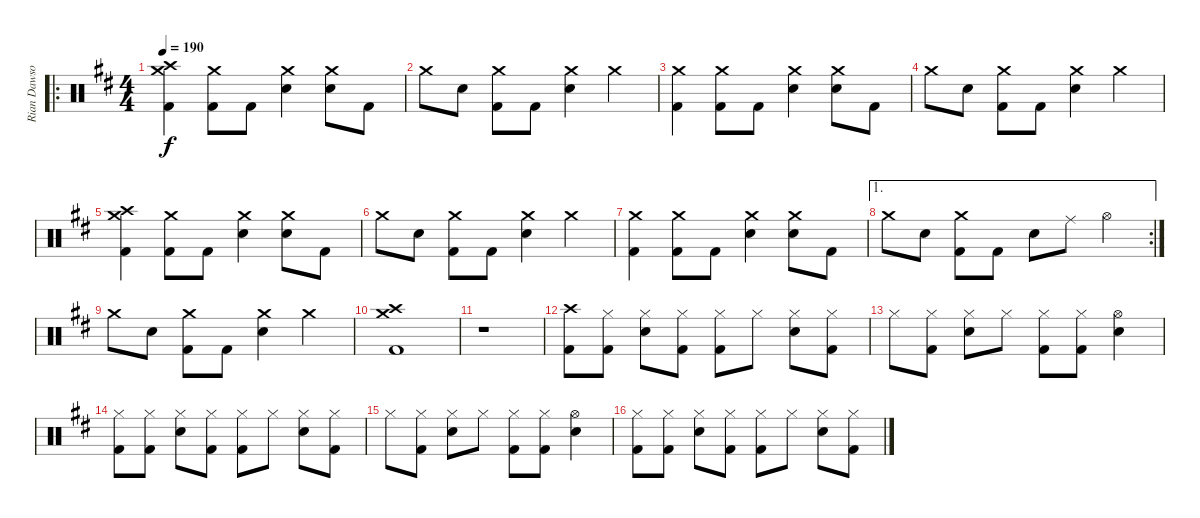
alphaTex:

\track ("Rian Dawson" "Rian Dawso") {instrument percussion}
\staff {score}
\articulation defaults
\ro
\ts (4 4)
\tempo 190
\clef neutral
\ks d
("Crash high (hit)" "Crash medium (hit)" "Kick (hit) 2").4{dy f} ("Crash medium (hit)" "Kick (hit) 2").8 "Kick (hit) 2".8 ("Crash medium (hit)" "Electric Snare (hit)").4 ("Crash medium (hit)" "Electric Snare (hit)").8 "Kick (hit) 2".8 |
"Crash medium (hit)".8 "Electric Snare (hit)".8 ("Crash medium (hit)" "Kick (hit) 2").8 "Kick (hit) 2".8 ("Crash medium (hit)" "Electric Snare (hit)").4 "Crash medium (hit)".4 |
("Crash medium (hit)" "Kick (hit) 2").4 ("Crash medium (hit)" "Kick (hit) 2").8 "Kick (hit) 2".8 ("Crash medium (hit)" "Electric Snare (hit)").4 ("Crash medium (hit)" "Electric Snare (hit)").8 "Kick (hit) 2".8 |
"Crash medium (hit)".8 "Electric Snare (hit)".8 ("Crash medium (hit)" "Kick (hit) 2").8 "Kick (hit) 2".8 ("Crash medium (hit)" "Electric Snare (hit)").4 "Crash medium (hit)".4 |
("Crash high (hit)" "Crash medium (hit)" "Kick (hit) 2").4 ("Crash medium (hit)" "Kick (hit) 2").8 "Kick (hit) 2".8 ("Crash medium (hit)" "Electric Snare (hit)").4 ("Crash medium (hit)" "Electric Snare (hit)").8 "Kick (hit) 2".8 |
"Crash medium (hit)".8 "Electric Snare (hit)".8 ("Crash medium (hit)" "Kick (hit) 2").8 "Kick (hit) 2".8 ("Crash medium (hit)" "Electric Snare (hit)").4 "Crash medium (hit)".4 |
("Crash medium (hit)" "Kick (hit) 2").4 ("Crash medium (hit)" "Kick (hit) 2").8 "Kick (hit) 2".8 ("Crash medium (hit)" "Electric Snare (hit)").4 ("Crash medium (hit)" "Electric Snare (hit)").8 "Kick (hit) 2".8 |
\ae 1
\rc 2 "Crash medium (hit)".8 "Electric Snare (hit)".8
("Crash medium (hit)" "Kick (hit) 2").8 "Kick (hit) 2".8 "Electric Snare (hit)".8 "Ride (middle)".8 "Hi-Hat (open)".4 |
"Crash medium (hit)".8 "Electric Snare (hit)".8 ("Crash medium (hit)" "Kick (hit) 2").8 "Kick (hit) 2".8 ("Crash medium (hit)" "Electric Snare (hit)").4 "Crash medium (hit)".4 |
("Crash high (hit)" "Crash medium (hit)" "Kick (hit) 2").1 |
r.1 |
("Crash high (hit)" "Kick (hit) 2").8 ("Hi-Hat (closed)" "Kick (hit) 2").8 ("Hi-Hat (closed)" "Electric Snare (hit)").8 ("Hi-Hat (closed)" "Kick (hit) 2").8 ("Hi-Hat (closed)" "Kick (hit) 2").8 "Hi-Hat (closed)".8 ("Hi-Hat (closed)" "Electric Snare (hit)").8 ("Hi-Hat (closed)" "Kick (hit) 2").8 |
"Hi-Hat (closed)".8 ("Hi-Hat (closed)" "Kick (hit) 2").8 ("Hi-Hat (closed)" "Electric Snare (hit)").8 "Hi-Hat (closed)".8 ("Hi-Hat (closed)" "Kick (hit) 2").8 ("Hi-Hat (closed)" "Kick (hit) 2").8 ("Hi-Hat (open)" "Electric Snare (hit)").4 |
("Hi-Hat (closed)" "Kick (hit) 2").8 ("Hi-Hat (closed)" "Kick (hit) 2").8 ("Hi-Hat (closed)" "Electric Snare (hit)").8 ("Hi-Hat (closed)" "Kick (hit) 2").8 ("Hi-Hat (closed)" "Kick (hit) 2").8 "Hi-Hat (closed)".8 ("Hi-Hat (closed)" "Electric Snare (hit)").8 ("Hi-Hat (closed)" "Kick (hit) 2").8 |
"Hi-Hat (closed)".8 ("Hi-Hat (closed)" "Kick (hit) 2").8 ("Hi-Hat (closed)" "Electric Snare (hit)").8 "Hi-Hat (closed)".8 ("Hi-Hat (closed)" "Kick (hit) 2").8 ("Hi-Hat (closed)" "Kick (hit) 2").8 ("Hi-Hat (open)" "Electric Snare (hit)").4 |
("Hi-Hat (closed)" "Kick (hit) 2").8 ("Hi-Hat (closed)" "Kick (hit) 2").8 ("Hi-Hat (closed)" "Electric Snare (hit)").8 ("Hi-Hat (closed)" "Kick (hit) 2").8 ("Hi-Hat (closed)" "Kick (hit) 2").8 "Hi-Hat (closed)".8 ("Hi-Hat (closed)" "Electric Snare (hit)").8 ("Hi-Hat (closed)" "Kick (hit) 2").8
